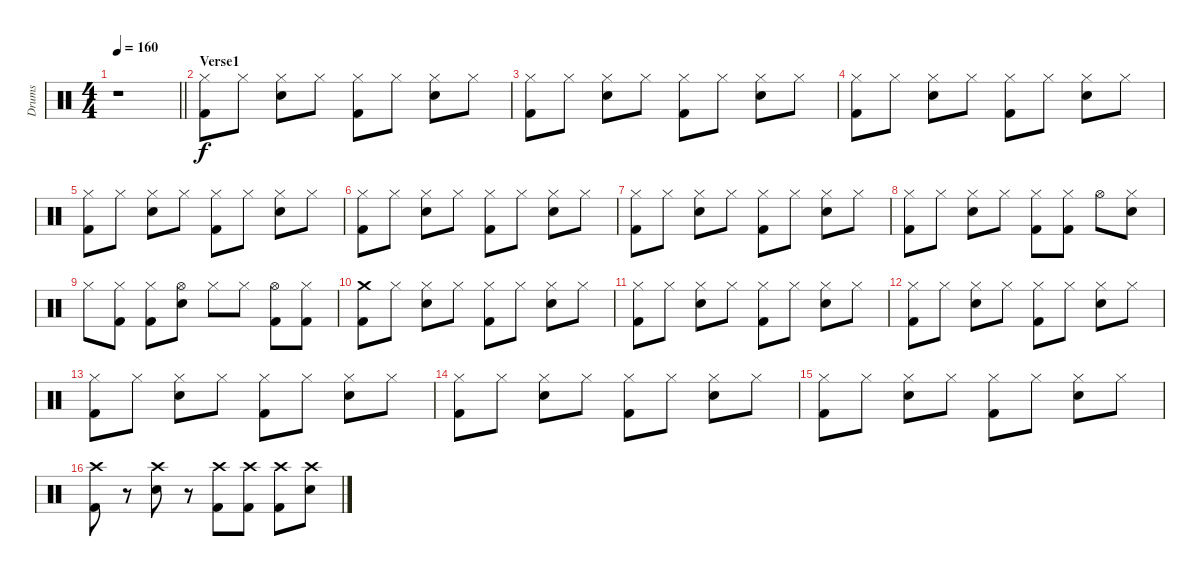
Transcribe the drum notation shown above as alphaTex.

\track ("Drums" "Drums") {instrument percussion}
\staff {score}
\articulation defaults
\ts (4 4)
\tempo 160
\clef neutral
\barLineRight lightlight
\ks c
r.1{dy f} |
\section ("" "Verse1")
("Hi-Hat (closed)" "Kick (hit) 2").8 "Hi-Hat (closed)".8 ("Hi-Hat (closed)" "Electric Snare (hit)").8 "Hi-Hat (closed)".8 ("Hi-Hat (closed)" "Kick (hit) 2").8 "Hi-Hat (closed)".8 ("Hi-Hat (closed)" "Electric Snare (hit)").8 "Hi-Hat (closed)".8 |
("Hi-Hat (closed)" "Kick (hit) 2").8 "Hi-Hat (closed)".8 ("Hi-Hat (closed)" "Electric Snare (hit)").8 "Hi-Hat (closed)".8 ("Hi-Hat (closed)" "Kick (hit) 2").8 "Hi-Hat (closed)".8 ("Hi-Hat (closed)" "Electric Snare (hit)").8 "Hi-Hat (closed)".8 |
("Hi-Hat (closed)" "Kick (hit) 2").8 "Hi-Hat (closed)".8 ("Hi-Hat (closed)" "Electric Snare (hit)").8 "Hi-Hat (closed)".8 ("Hi-Hat (closed)" "Kick (hit) 2").8 "Hi-Hat (closed)".8 ("Hi-Hat (closed)" "Electric Snare (hit)").8 "Hi-Hat (closed)".8 |
("Hi-Hat (closed)" "Kick (hit) 2").8 "Hi-Hat (closed)".8 ("Hi-Hat (closed)" "Electric Snare (hit)").8 "Hi-Hat (closed)".8 ("Hi-Hat (closed)" "Kick (hit) 2").8 "Hi-Hat (closed)".8 ("Hi-Hat (closed)" "Electric Snare (hit)").8 "Hi-Hat (closed)".8 |
("Hi-Hat (closed)" "Kick (hit) 2").8 "Hi-Hat (closed)".8 ("Hi-Hat (closed)" "Electric Snare (hit)").8 "Hi-Hat (closed)".8 ("Hi-Hat (closed)" "Kick (hit) 2").8 "Hi-Hat (closed)".8 ("Hi-Hat (closed)" "Electric Snare (hit)").8 "Hi-Hat (closed)".8 |
("Hi-Hat (closed)" "Kick (hit) 2").8 "Hi-Hat (closed)".8 ("Hi-Hat (closed)" "Electric Snare (hit)").8 "Hi-Hat (closed)".8 ("Hi-Hat (closed)" "Kick (hit) 2").8 "Hi-Hat (closed)".8 ("Hi-Hat (closed)" "Electric Snare (hit)").8 "Hi-Hat (closed)".8 |
("Hi-Hat (closed)" "Kick (hit) 2").8 "Hi-Hat (closed)".8 ("Hi-Hat (closed)" "Electric Snare (hit)").8 "Hi-Hat (closed)".8 ("Hi-Hat (closed)" "Kick (hit) 2").8 ("Hi-Hat (closed)" "Kick (hit) 2").8 "Hi-Hat (open)".8 ("Hi-Hat (closed)" "Electric Snare (hit)").8 |
"Hi-Hat (closed)".8 ("Hi-Hat (closed)" "Kick (hit) 2").8 ("Hi-Hat (closed)" "Kick (hit) 2").8 ("Hi-Hat (open)" "Electric Snare (hit)").8 "Hi-Hat (closed)".8 "Hi-Hat (closed)".8 ("Hi-Hat (open)" "Kick (hit) 2").8 ("Hi-Hat (closed)" "Kick (hit) 2").8 |
("Crash medium (hit)" "Kick (hit) 2").8 "Hi-Hat (closed)".8 ("Hi-Hat (closed)" "Electric Snare (hit)").8 "Hi-Hat (closed)".8 ("Hi-Hat (closed)" "Kick (hit) 2").8 "Hi-Hat (closed)".8 ("Hi-Hat (closed)" "Electric Snare (hit)").8 "Hi-Hat (closed)".8 |
("Hi-Hat (closed)" "Kick (hit) 2").8 "Hi-Hat (closed)".8 ("Hi-Hat (closed)" "Electric Snare (hit)").8 "Hi-Hat (closed)".8 ("Hi-Hat (closed)" "Kick (hit) 2").8 "Hi-Hat (closed)".8 ("Hi-Hat (closed)" "Electric Snare (hit)").8 "Hi-Hat (closed)".8 |
("Hi-Hat (closed)" "Kick (hit) 2").8 "Hi-Hat (closed)".8 ("Hi-Hat (closed)" "Electric Snare (hit)").8 "Hi-Hat (closed)".8 ("Hi-Hat (closed)" "Kick (hit) 2").8 "Hi-Hat (closed)".8 ("Hi-Hat (closed)" "Electric Snare (hit)").8 "Hi-Hat (closed)".8 |
("Hi-Hat (closed)" "Kick (hit) 2").8 "Hi-Hat (closed)".8 ("Hi-Hat (closed)" "Electric Snare (hit)").8 "Hi-Hat (closed)".8 ("Hi-Hat (closed)" "Kick (hit) 2").8 "Hi-Hat (closed)".8 ("Hi-Hat (closed)" "Electric Snare (hit)").8 "Hi-Hat (closed)".8 |
("Hi-Hat (closed)" "Kick (hit) 2").8 "Hi-Hat (closed)".8 ("Hi-Hat (closed)" "Electric Snare (hit)").8 "Hi-Hat (closed)".8 ("Hi-Hat (closed)" "Kick (hit) 2").8 "Hi-Hat (closed)".8 ("Hi-Hat (closed)" "Electric Snare (hit)").8 "Hi-Hat (closed)".8 |
("Hi-Hat (closed)" "Kick (hit) 2").8 "Hi-Hat (closed)".8 ("Hi-Hat (closed)" "Electric Snare (hit)").8 "Hi-Hat (closed)".8 ("Hi-Hat (closed)" "Kick (hit) 2").8 "Hi-Hat (closed)".8 ("Hi-Hat (closed)" "Electric Snare (hit)").8 "Hi-Hat (closed)".8 |
("Crash high (hit)" "Kick (hit) 2").8 r.8 ("Crash high (hit)" "Electric Snare (hit)").8 r.8 ("Crash high (hit)" "Kick (hit) 2").8 ("Crash high (hit)" "Kick (hit) 2").8 ("Crash high (hit)" "Kick (hit) 2").8 ("Crash high (hit)" "Electric Snare (hit)").8
